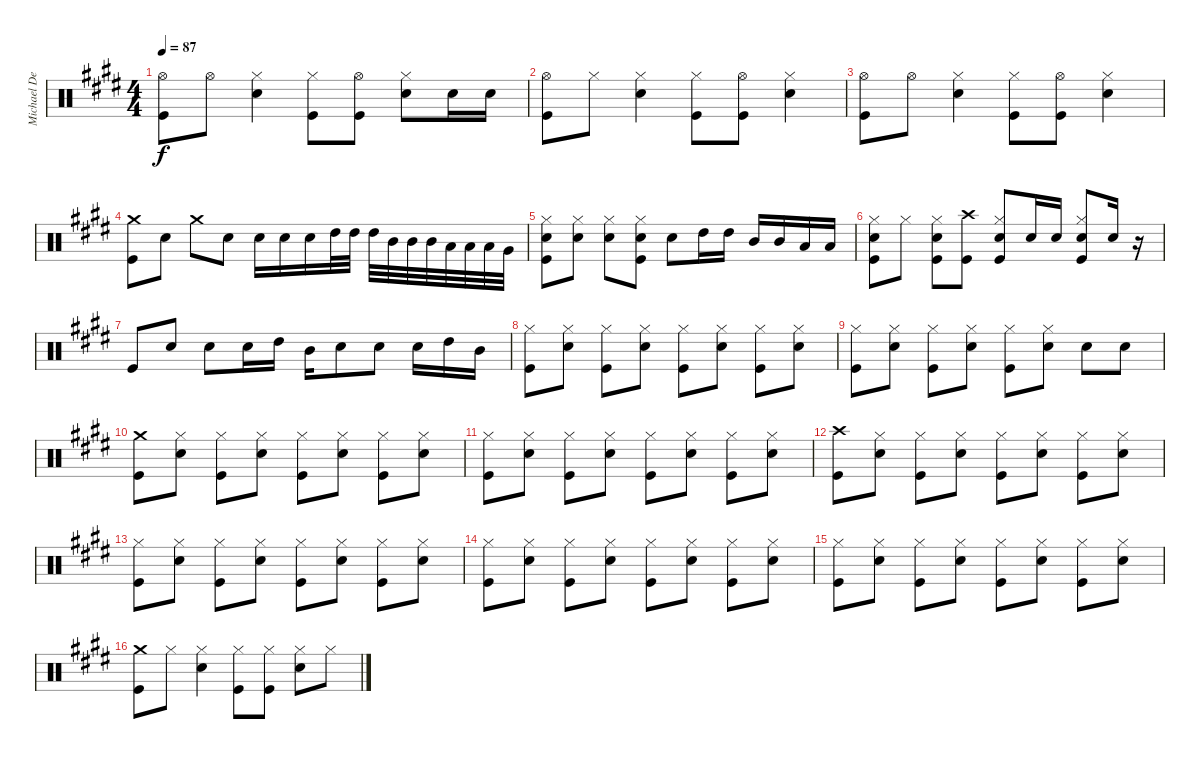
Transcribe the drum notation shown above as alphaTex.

\track ("Michael Derosier Drums" "Michael De") {instrument percussion}
\staff {score}
\articulation defaults
\ts (4 4)
\tempo 87
\clef neutral
\ks e
("Hi-Hat (open)" "Kick (hit)").8{dy f} "Hi-Hat (open)".8 ("Hi-Hat (closed)" "Snare (hit) 2").4 ("Hi-Hat (closed)" "Kick (hit)").8 ("Hi-Hat (open)" "Kick (hit)").8 ("Hi-Hat (closed)" "Snare (hit) 2").8 "Snare (hit) 2".16 "Snare (hit) 2".16 |
("Hi-Hat (open)" "Kick (hit)").8 "Hi-Hat (closed)".8 ("Hi-Hat (closed)" "Snare (hit) 2").4 ("Hi-Hat (closed)" "Kick (hit)").8 ("Hi-Hat (open)" "Kick (hit)").8 ("Hi-Hat (closed)" "Snare (hit) 2").4 |
("Hi-Hat (open)" "Kick (hit)").8 "Hi-Hat (open)".8 ("Hi-Hat (closed)" "Snare (hit) 2").4 ("Hi-Hat (closed)" "Kick (hit)").8 ("Hi-Hat (open)" "Kick (hit)").8 ("Hi-Hat (closed)" "Snare (hit) 2").4 |
("Crash medium (hit)" "Kick (hit)").8 "Snare (hit) 2".8 "Crash medium (hit)".8 "Snare (hit) 2".8 "Snare (hit) 2".16 "Snare (hit) 2".16 "Snare (hit) 2".16 "High Tom (hit)".32 "High Tom (hit)".32 "High Tom (hit)".32 "Mid Tom (hit)".32 "Mid Tom (hit)".32 "Mid Tom (hit)".32 "Low Tom (hit)".32 "Low Tom (hit)".32 "Low Tom (hit)".32 "Very Low Tom (hit)".32 |
("Hi-Hat (closed)" "Snare (hit) 2" "Kick (hit)").8 ("Hi-Hat (closed)" "Snare (hit) 2").8 ("Hi-Hat (closed)" "Snare (hit) 2").8 ("Hi-Hat (closed)" "Snare (hit) 2" "Kick (hit)").8 "Snare (hit) 2".8 "High Tom (hit)".16 "High Tom (hit)".16 "Mid Tom (hit)".16 "Mid Tom (hit)".16 "Low Tom (hit)".16 "Low Tom (hit)".16 |
("Hi-Hat (closed)" "Snare (hit) 2" "Kick (hit)").8 "Hi-Hat (closed)".8 ("Hi-Hat (closed)" "Snare (hit) 2" "Kick (hit)").8 ("Crash high (hit)" "Kick (hit)").8 ("Hi-Hat (closed)" "Snare (hit) 2" "Kick (hit)").8 "Snare (hit) 2".16 "Snare (hit) 2".16 ("Hi-Hat (closed)" "Snare (hit) 2" "Kick (hit)").8 "Snare (hit) 2".16 r.16 |
"Kick (hit)".8 "Snare (hit) 2".8 "Snare (hit) 2".8 "Snare (hit) 2".16 "High Tom (hit)".16 "Mid Tom (hit)".16 "Snare (hit) 2".8 "Snare (hit) 2".8 "Snare (hit) 2".16 "High Tom (hit)".16 "Mid Tom (hit)".16 |
("Hi-Hat (closed)" "Kick (hit)").8 ("Hi-Hat (closed)" "Snare (hit) 2").8 ("Hi-Hat (closed)" "Kick (hit)").8 ("Hi-Hat (closed)" "Snare (hit) 2").8 ("Hi-Hat (closed)" "Kick (hit)").8 ("Hi-Hat (closed)" "Snare (hit) 2").8 ("Hi-Hat (closed)" "Kick (hit)").8 ("Hi-Hat (closed)" "Snare (hit) 2").8 |
("Hi-Hat (closed)" "Kick (hit)").8 ("Hi-Hat (closed)" "Snare (hit) 2").8 ("Hi-Hat (closed)" "Kick (hit)").8 ("Hi-Hat (closed)" "Snare (hit) 2").8 ("Hi-Hat (closed)" "Kick (hit)").8 ("Hi-Hat (closed)" "Snare (hit) 2").8 "Snare (hit) 2".8 "Snare (hit) 2".8 |
("Crash medium (hit)" "Kick (hit)").8 ("Hi-Hat (closed)" "Snare (hit) 2").8 ("Hi-Hat (closed)" "Kick (hit)").8 ("Hi-Hat (closed)" "Snare (hit) 2").8 ("Hi-Hat (closed)" "Kick (hit)").8 ("Hi-Hat (closed)" "Snare (hit) 2").8 ("Hi-Hat (closed)" "Kick (hit)").8 ("Hi-Hat (closed)" "Snare (hit) 2").8 |
("Hi-Hat (closed)" "Kick (hit)").8 ("Hi-Hat (closed)" "Snare (hit) 2").8 ("Hi-Hat (closed)" "Kick (hit)").8 ("Hi-Hat (closed)" "Snare (hit) 2").8 ("Hi-Hat (closed)" "Kick (hit)").8 ("Hi-Hat (closed)" "Snare (hit) 2").8 ("Hi-Hat (closed)" "Kick (hit)").8 ("Hi-Hat (closed)" "Snare (hit) 2").8 |
("Crash high (hit)" "Kick (hit)").8 ("Hi-Hat (closed)" "Snare (hit) 2").8 ("Hi-Hat (closed)" "Kick (hit)").8 ("Hi-Hat (closed)" "Snare (hit) 2").8 ("Hi-Hat (closed)" "Kick (hit)").8 ("Hi-Hat (closed)" "Snare (hit) 2").8 ("Hi-Hat (closed)" "Kick (hit)").8 ("Hi-Hat (closed)" "Snare (hit) 2").8 |
("Hi-Hat (closed)" "Kick (hit)").8 ("Hi-Hat (closed)" "Snare (hit) 2").8 ("Hi-Hat (closed)" "Kick (hit)").8 ("Hi-Hat (closed)" "Snare (hit) 2").8 ("Hi-Hat (closed)" "Kick (hit)").8 ("Hi-Hat (closed)" "Snare (hit) 2").8 ("Hi-Hat (closed)" "Kick (hit)").8 ("Hi-Hat (closed)" "Snare (hit) 2").8 |
("Hi-Hat (closed)" "Kick (hit)").8 ("Hi-Hat (closed)" "Snare (hit) 2").8 ("Hi-Hat (closed)" "Kick (hit)").8 ("Hi-Hat (closed)" "Snare (hit) 2").8 ("Hi-Hat (closed)" "Kick (hit)").8 ("Hi-Hat (closed)" "Snare (hit) 2").8 ("Hi-Hat (closed)" "Kick (hit)").8 ("Hi-Hat (closed)" "Snare (hit) 2").8 |
("Hi-Hat (closed)" "Kick (hit)").8 ("Hi-Hat (closed)" "Snare (hit) 2").8 ("Hi-Hat (closed)" "Kick (hit)").8 ("Hi-Hat (closed)" "Snare (hit) 2").8 ("Hi-Hat (closed)" "Kick (hit)").8 ("Hi-Hat (closed)" "Snare (hit) 2").8 ("Hi-Hat (closed)" "Kick (hit)").8 ("Hi-Hat (closed)" "Snare (hit) 2").8 |
("Crash medium (hit)" "Kick (hit)").8 "Hi-Hat (closed)".8 ("Hi-Hat (closed)" "Snare (hit) 2").4 ("Hi-Hat (closed)" "Kick (hit)").8 ("Hi-Hat (closed)" "Kick (hit)").8 ("Hi-Hat (closed)" "Snare (hit) 2").8 "Hi-Hat (closed)".8
